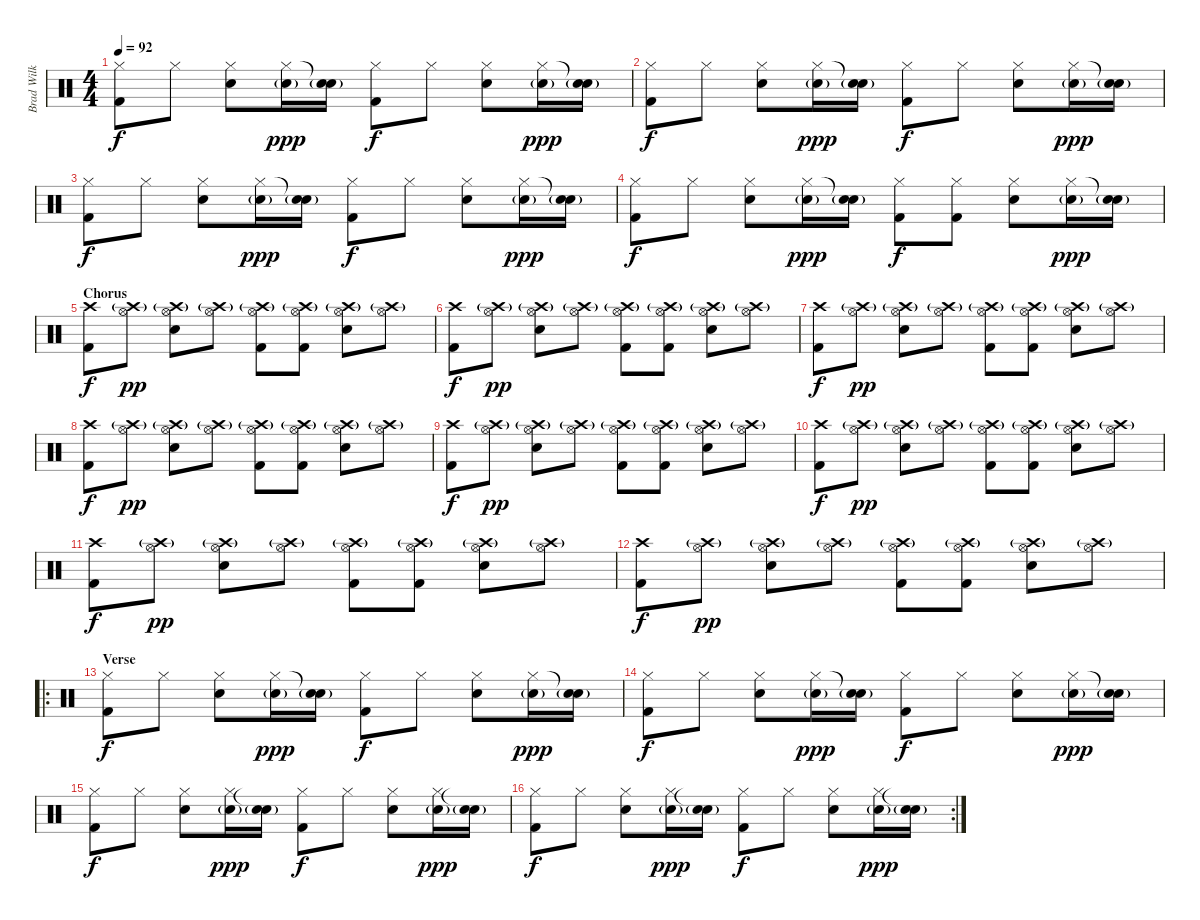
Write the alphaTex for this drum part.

\track ("Brad Wilk" "Brad Wilk") {instrument percussion}
\staff {score}
\articulation defaults
\ts (4 4)
\tempo 92
\clef neutral
\ks c
("Hi-Hat (closed)" "Kick (hit) 2").8{dy f} "Hi-Hat (closed)".8 ("Hi-Hat (closed)" "Electric Snare (hit)").8 ("Hi-Hat (closed)" "Electric Snare (hit)"{g}).16{dy ppp} ("Snare (hit)"{t} "Electric Snare (hit)"{g}).16 ("Hi-Hat (closed)" "Kick (hit) 2").8{dy f} "Hi-Hat (closed)".8 ("Hi-Hat (closed)" "Electric Snare (hit)").8 ("Hi-Hat (closed)" "Electric Snare (hit)"{g}).16{dy ppp} ("Snare (hit)"{t} "Electric Snare (hit)"{g}).16 |
("Hi-Hat (closed)" "Kick (hit) 2").8{dy f} "Hi-Hat (closed)".8 ("Hi-Hat (closed)" "Electric Snare (hit)").8 ("Hi-Hat (closed)" "Electric Snare (hit)"{g}).16{dy ppp} ("Snare (hit)"{t} "Electric Snare (hit)"{g}).16 ("Hi-Hat (closed)" "Kick (hit) 2").8{dy f} "Hi-Hat (closed)".8 ("Hi-Hat (closed)" "Electric Snare (hit)").8 ("Hi-Hat (closed)" "Electric Snare (hit)"{g}).16{dy ppp} ("Snare (hit)"{t} "Electric Snare (hit)"{g}).16 |
("Hi-Hat (closed)" "Kick (hit) 2").8{dy f} "Hi-Hat (closed)".8 ("Hi-Hat (closed)" "Electric Snare (hit)").8 ("Hi-Hat (closed)" "Electric Snare (hit)"{g}).16{dy ppp} ("Snare (hit)"{t} "Electric Snare (hit)"{g}).16 ("Hi-Hat (closed)" "Kick (hit) 2").8{dy f} "Hi-Hat (closed)".8 ("Hi-Hat (closed)" "Electric Snare (hit)").8 ("Hi-Hat (closed)" "Electric Snare (hit)"{g}).16{dy ppp} ("Snare (hit)"{t} "Electric Snare (hit)"{g}).16 |
("Hi-Hat (closed)" "Kick (hit) 2").8{dy f} "Hi-Hat (closed)".8 ("Hi-Hat (closed)" "Electric Snare (hit)").8 ("Hi-Hat (closed)" "Electric Snare (hit)"{g}).16{dy ppp} ("Snare (hit)"{t} "Electric Snare (hit)"{g}).16 ("Hi-Hat (closed)" "Kick (hit) 2").8{dy f} ("Hi-Hat (closed)" "Kick (hit) 2").8 ("Hi-Hat (closed)" "Electric Snare (hit)").8 ("Hi-Hat (closed)" "Electric Snare (hit)"{g}).16{dy ppp} ("Snare (hit)"{t} "Electric Snare (hit)"{g}).16 |
\section ("" "Chorus")
("Crash high (hit)" "Kick (hit) 2").8{dy f} ("Hi-Hat (open)" "Crash high (hit)"{g}).8{dy pp} ("Hi-Hat (open)" "Crash high (hit)"{g} "Electric Snare (hit)").8 ("Hi-Hat (open)" "Crash high (hit)"{g}).8 ("Hi-Hat (open)" "Crash high (hit)"{g} "Kick (hit) 2").8 ("Hi-Hat (open)" "Crash high (hit)"{g} "Kick (hit) 2").8 ("Hi-Hat (open)" "Crash high (hit)"{g} "Electric Snare (hit)").8 ("Hi-Hat (open)" "Crash high (hit)"{g}).8 |
("Crash high (hit)" "Kick (hit) 2").8{dy f} ("Hi-Hat (open)" "Crash high (hit)"{g}).8{dy pp} ("Hi-Hat (open)" "Crash high (hit)"{g} "Electric Snare (hit)").8 ("Hi-Hat (open)" "Crash high (hit)"{g}).8 ("Hi-Hat (open)" "Crash high (hit)"{g} "Kick (hit) 2").8 ("Hi-Hat (open)" "Crash high (hit)"{g} "Kick (hit) 2").8 ("Hi-Hat (open)" "Crash high (hit)"{g} "Electric Snare (hit)").8 ("Hi-Hat (open)" "Crash high (hit)"{g}).8 |
("Crash high (hit)" "Kick (hit) 2").8{dy f} ("Hi-Hat (open)" "Crash high (hit)"{g}).8{dy pp} ("Hi-Hat (open)" "Crash high (hit)"{g} "Electric Snare (hit)").8 ("Hi-Hat (open)" "Crash high (hit)"{g}).8 ("Hi-Hat (open)" "Crash high (hit)"{g} "Kick (hit) 2").8 ("Hi-Hat (open)" "Crash high (hit)"{g} "Kick (hit) 2").8 ("Hi-Hat (open)" "Crash high (hit)"{g} "Electric Snare (hit)").8 ("Hi-Hat (open)" "Crash high (hit)"{g}).8 |
("Crash high (hit)" "Kick (hit) 2").8{dy f} ("Hi-Hat (open)" "Crash high (hit)"{g}).8{dy pp} ("Hi-Hat (open)" "Crash high (hit)"{g} "Electric Snare (hit)").8 ("Hi-Hat (open)" "Crash high (hit)"{g}).8 ("Hi-Hat (open)" "Crash high (hit)"{g} "Kick (hit) 2").8 ("Hi-Hat (open)" "Crash high (hit)"{g} "Kick (hit) 2").8 ("Hi-Hat (open)" "Crash high (hit)"{g} "Electric Snare (hit)").8 ("Hi-Hat (open)" "Crash high (hit)"{g}).8 |
("Crash high (hit)" "Kick (hit) 2").8{dy f} ("Hi-Hat (open)" "Crash high (hit)"{g}).8{dy pp} ("Hi-Hat (open)" "Crash high (hit)"{g} "Electric Snare (hit)").8 ("Hi-Hat (open)" "Crash high (hit)"{g}).8 ("Hi-Hat (open)" "Crash high (hit)"{g} "Kick (hit) 2").8 ("Hi-Hat (open)" "Crash high (hit)"{g} "Kick (hit) 2").8 ("Hi-Hat (open)" "Crash high (hit)"{g} "Electric Snare (hit)").8 ("Hi-Hat (open)" "Crash high (hit)"{g}).8 |
("Crash high (hit)" "Kick (hit) 2").8{dy f} ("Hi-Hat (open)" "Crash high (hit)"{g}).8{dy pp} ("Hi-Hat (open)" "Crash high (hit)"{g} "Electric Snare (hit)").8 ("Hi-Hat (open)" "Crash high (hit)"{g}).8 ("Hi-Hat (open)" "Crash high (hit)"{g} "Kick (hit) 2").8 ("Hi-Hat (open)" "Crash high (hit)"{g} "Kick (hit) 2").8 ("Hi-Hat (open)" "Crash high (hit)"{g} "Electric Snare (hit)").8 ("Hi-Hat (open)" "Crash high (hit)"{g}).8 |
("Crash high (hit)" "Kick (hit) 2").8{dy f} ("Hi-Hat (open)" "Crash high (hit)"{g}).8{dy pp} ("Hi-Hat (open)" "Crash high (hit)"{g} "Electric Snare (hit)").8 ("Hi-Hat (open)" "Crash high (hit)"{g}).8 ("Hi-Hat (open)" "Crash high (hit)"{g} "Kick (hit) 2").8 ("Hi-Hat (open)" "Crash high (hit)"{g} "Kick (hit) 2").8 ("Hi-Hat (open)" "Crash high (hit)"{g} "Electric Snare (hit)").8 ("Hi-Hat (open)" "Crash high (hit)"{g}).8 |
("Crash high (hit)" "Kick (hit) 2").8{dy f} ("Hi-Hat (open)" "Crash high (hit)"{g}).8{dy pp} ("Hi-Hat (open)" "Crash high (hit)"{g} "Electric Snare (hit)").8 ("Hi-Hat (open)" "Crash high (hit)"{g}).8 ("Hi-Hat (open)" "Crash high (hit)"{g} "Kick (hit) 2").8 ("Hi-Hat (open)" "Crash high (hit)"{g} "Kick (hit) 2").8 ("Hi-Hat (open)" "Crash high (hit)"{g} "Electric Snare (hit)").8 ("Hi-Hat (open)" "Crash high (hit)"{g}).8 |
\ro
\section ("" "Verse")
("Hi-Hat (closed)" "Kick (hit) 2").8{dy f} "Hi-Hat (closed)".8 ("Hi-Hat (closed)" "Electric Snare (hit)").8 ("Hi-Hat (closed)" "Electric Snare (hit)"{g}).16{dy ppp} ("Snare (hit)"{t} "Electric Snare (hit)"{g}).16 ("Hi-Hat (closed)" "Kick (hit) 2").8{dy f} "Hi-Hat (closed)".8 ("Hi-Hat (closed)" "Electric Snare (hit)").8 ("Hi-Hat (closed)" "Electric Snare (hit)"{g}).16{dy ppp} ("Snare (hit)"{t} "Electric Snare (hit)"{g}).16 |
("Hi-Hat (closed)" "Kick (hit) 2").8{dy f} "Hi-Hat (closed)".8 ("Hi-Hat (closed)" "Electric Snare (hit)").8 ("Hi-Hat (closed)" "Electric Snare (hit)"{g}).16{dy ppp} ("Snare (hit)"{t} "Electric Snare (hit)"{g}).16 ("Hi-Hat (closed)" "Kick (hit) 2").8{dy f} "Hi-Hat (closed)".8 ("Hi-Hat (closed)" "Electric Snare (hit)").8 ("Hi-Hat (closed)" "Electric Snare (hit)"{g}).16{dy ppp} ("Snare (hit)"{t} "Electric Snare (hit)"{g}).16 |
("Hi-Hat (closed)" "Kick (hit) 2").8{dy f} "Hi-Hat (closed)".8 ("Hi-Hat (closed)" "Electric Snare (hit)").8 ("Hi-Hat (closed)" "Electric Snare (hit)"{g}).16{dy ppp} ("Snare (hit)"{t} "Electric Snare (hit)"{g}).16 ("Hi-Hat (closed)" "Kick (hit) 2").8{dy f} "Hi-Hat (closed)".8 ("Hi-Hat (closed)" "Electric Snare (hit)").8 ("Hi-Hat (closed)" "Electric Snare (hit)"{g}).16{dy ppp} ("Snare (hit)"{t} "Electric Snare (hit)"{g}).16 |
\rc 2
("Hi-Hat (closed)" "Kick (hit) 2").8{dy f} "Hi-Hat (closed)".8 ("Hi-Hat (closed)" "Electric Snare (hit)").8 ("Hi-Hat (closed)" "Electric Snare (hit)"{g}).16{dy ppp} ("Snare (hit)"{t} "Electric Snare (hit)"{g}).16 ("Hi-Hat (closed)" "Kick (hit) 2").8{dy f} "Hi-Hat (closed)".8 ("Hi-Hat (closed)" "Electric Snare (hit)").8 ("Hi-Hat (closed)" "Electric Snare (hit)"{g}).16{dy ppp} ("Snare (hit)"{t} "Electric Snare (hit)"{g}).16
